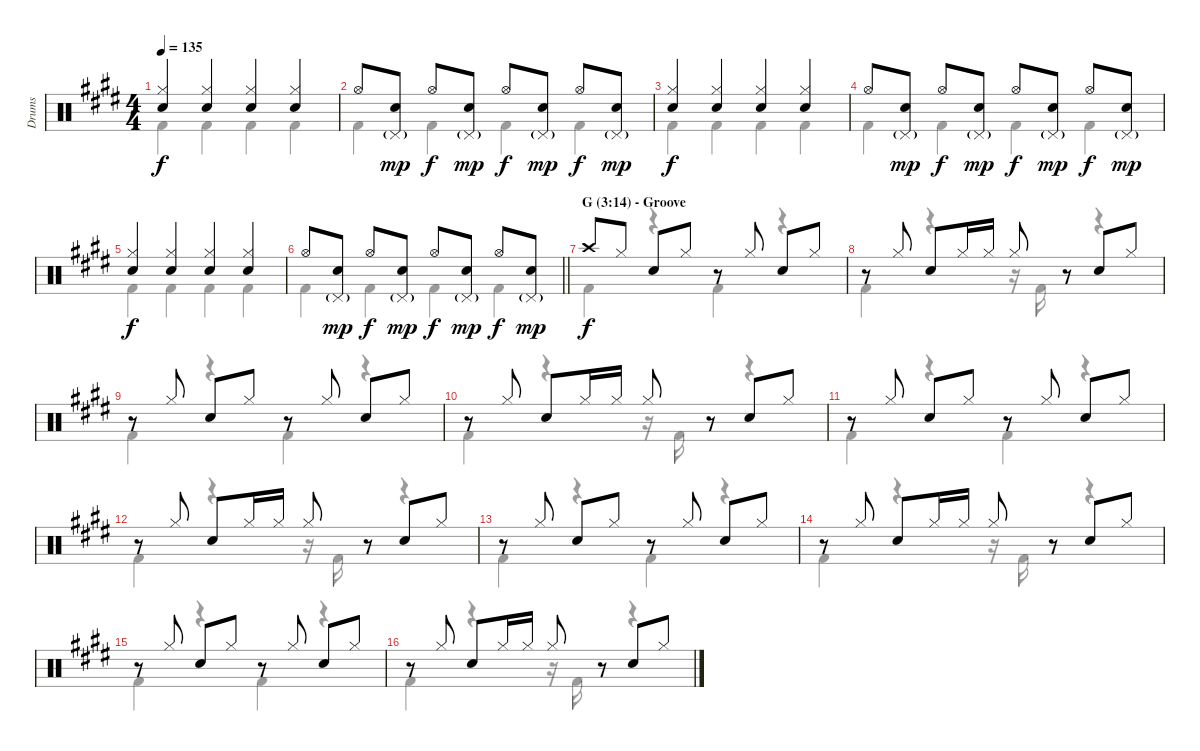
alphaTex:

\track ("Drums" "Drums") {instrument percussion}
\staff {score}
\articulation defaults
\voice
\ts (4 4)
\tempo 135
\clef neutral
\ks c#minor
("Hi-Hat (closed)" "Snare (hit) 2").4{dy f} ("Hi-Hat (closed)" "Snare (hit) 2").4 ("Hi-Hat (closed)" "Snare (hit) 2").4 ("Hi-Hat (closed)" "Snare (hit) 2").4 |
"Hi-Hat (open)".8 ("Pedal Hi-Hat (hit)"{g} "Snare (hit) 2").8{dy mp} "Hi-Hat (open)".8{dy f} ("Pedal Hi-Hat (hit)"{g} "Snare (hit) 2").8{dy mp} "Hi-Hat (open)".8{dy f} ("Pedal Hi-Hat (hit)"{g} "Snare (hit) 2").8{dy mp} "Hi-Hat (open)".8{dy f} ("Pedal Hi-Hat (hit)"{g} "Snare (hit) 2").8{dy mp} |
("Hi-Hat (closed)" "Snare (hit) 2").4{dy f} ("Hi-Hat (closed)" "Snare (hit) 2").4 ("Hi-Hat (closed)" "Snare (hit) 2").4 ("Hi-Hat (closed)" "Snare (hit) 2").4 |
"Hi-Hat (open)".8 ("Pedal Hi-Hat (hit)"{g} "Snare (hit) 2").8{dy mp} "Hi-Hat (open)".8{dy f} ("Pedal Hi-Hat (hit)"{g} "Snare (hit) 2").8{dy mp} "Hi-Hat (open)".8{dy f} ("Pedal Hi-Hat (hit)"{g} "Snare (hit) 2").8{dy mp} "Hi-Hat (open)".8{dy f} ("Pedal Hi-Hat (hit)"{g} "Snare (hit) 2").8{dy mp} |
("Hi-Hat (closed)" "Snare (hit) 2").4{dy f} ("Hi-Hat (closed)" "Snare (hit) 2").4 ("Hi-Hat (closed)" "Snare (hit) 2").4 ("Hi-Hat (closed)" "Snare (hit) 2").4 |
\barLineRight lightlight "Hi-Hat (open)".8
("Pedal Hi-Hat (hit)"{g} "Snare (hit) 2").8{dy mp} "Hi-Hat (open)".8{dy f} ("Pedal Hi-Hat (hit)"{g} "Snare (hit) 2").8{dy mp} "Hi-Hat (open)".8{dy f} ("Pedal Hi-Hat (hit)"{g} "Snare (hit) 2").8{dy mp} "Hi-Hat (open)".8{dy f} ("Pedal Hi-Hat (hit)"{g} "Snare (hit) 2").8{dy mp} |
\section ("" "G (3:14) - Groove")
"Crash high (hit)".8{dy f} "Hi-Hat (closed)".8 "Snare (hit) 2".8 "Hi-Hat (closed)".8 r.8 "Hi-Hat (closed)".8 "Snare (hit) 2".8 "Hi-Hat (closed)".8 |
r.8 "Hi-Hat (closed)".8 "Snare (hit) 2".8 "Hi-Hat (closed)".16 "Hi-Hat (closed)".16 "Hi-Hat (closed)".8 r.8 "Snare (hit) 2".8 "Hi-Hat (closed)".8 |
r.8 "Hi-Hat (closed)".8 "Snare (hit) 2".8 "Hi-Hat (closed)".8 r.8 "Hi-Hat (closed)".8 "Snare (hit) 2".8 "Hi-Hat (closed)".8 |
r.8 "Hi-Hat (closed)".8 "Snare (hit) 2".8 "Hi-Hat (closed)".16 "Hi-Hat (closed)".16 "Hi-Hat (closed)".8 r.8 "Snare (hit) 2".8 "Hi-Hat (closed)".8 |
r.8 "Hi-Hat (closed)".8 "Snare (hit) 2".8 "Hi-Hat (closed)".8 r.8 "Hi-Hat (closed)".8 "Snare (hit) 2".8 "Hi-Hat (closed)".8 |
r.8 "Hi-Hat (closed)".8 "Snare (hit) 2".8 "Hi-Hat (closed)".16 "Hi-Hat (closed)".16 "Hi-Hat (closed)".8 r.8 "Snare (hit) 2".8 "Hi-Hat (closed)".8 |
r.8 "Hi-Hat (closed)".8 "Snare (hit) 2".8 "Hi-Hat (closed)".8 r.8 "Hi-Hat (closed)".8 "Snare (hit) 2".8 "Hi-Hat (closed)".8 |
r.8 "Hi-Hat (closed)".8 "Snare (hit) 2".8 "Hi-Hat (closed)".16 "Hi-Hat (closed)".16 "Hi-Hat (closed)".8 r.8 "Snare (hit) 2".8 "Hi-Hat (closed)".8 |
r.8 "Hi-Hat (closed)".8 "Snare (hit) 2".8 "Hi-Hat (closed)".8 r.8 "Hi-Hat (closed)".8 "Snare (hit) 2".8 "Hi-Hat (closed)".8 |
r.8 "Hi-Hat (closed)".8 "Snare (hit) 2".8 "Hi-Hat (closed)".16 "Hi-Hat (closed)".16 "Hi-Hat (closed)".8 r.8 "Snare (hit) 2".8 "Hi-Hat (closed)".8
\voice
\clef neutral
\ottava regular
\simile none
\ks c#minor "Kick (hit) 2".4{dy f} "Kick (hit) 2".4 "Kick (hit) 2".4 "Kick (hit) 2".4
|
"Kick (hit) 2".4 "Kick (hit) 2".4 "Kick (hit) 2".4 "Kick (hit) 2".4 |
"Kick (hit) 2".4 "Kick (hit) 2".4 "Kick (hit) 2".4 "Kick (hit) 2".4 |
"Kick (hit) 2".4 "Kick (hit) 2".4 "Kick (hit) 2".4 "Kick (hit) 2".4 |
"Kick (hit) 2".4 "Kick (hit) 2".4 "Kick (hit) 2".4 "Kick (hit) 2".4 |
\barLineRight lightlight "Kick (hit) 2".4 "Kick (hit) 2".4 "Kick (hit) 2".4 "Kick (hit) 2".4
|
"Kick (hit) 2".4 r.4 "Kick (hit) 2".4 r.4 |
"Kick (hit) 2".4 r.4 r.16 "Kick (hit) 2".16 r.8 r.4 |
"Kick (hit) 2".4 r.4 "Kick (hit) 2".4 r.4 |
"Kick (hit) 2".4 r.4 r.16 "Kick (hit) 2".16 r.8 r.4 |
"Kick (hit) 2".4 r.4 "Kick (hit) 2".4 r.4 |
"Kick (hit) 2".4 r.4 r.16 "Kick (hit) 2".16 r.8 r.4 |
"Kick (hit) 2".4 r.4 "Kick (hit) 2".4 r.4 |
"Kick (hit) 2".4 r.4 r.16 "Kick (hit) 2".16 r.8 r.4 |
"Kick (hit) 2".4 r.4 "Kick (hit) 2".4 r.4 |
"Kick (hit) 2".4 r.4 r.16 "Kick (hit) 2".16 r.8 r.4
